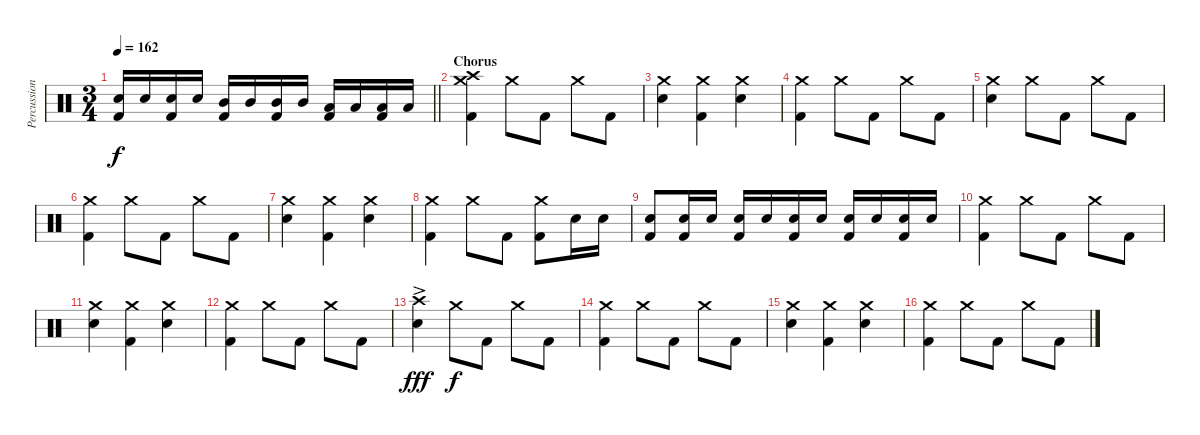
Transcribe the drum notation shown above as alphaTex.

\track ("Percussion" "Percussion") {instrument percussion}
\staff {score}
\articulation defaults
\ts (3 4)
\tempo 162
\clef neutral
\barLineRight lightlight
\ks c
("Electric Snare (hit)" "Kick (hit) 2").16{dy f} "Electric Snare (hit)".16 ("Electric Snare (hit)" "Kick (hit) 2").16 "Electric Snare (hit)".16 ("Mid Tom (hit)" "Kick (hit) 2").16 "Mid Tom (hit)".16 ("Mid Tom (hit)" "Kick (hit) 2").16 "Mid Tom (hit)".16 ("Low Tom (hit)" "Kick (hit) 2").16 "Low Tom (hit)".16 ("Low Tom (hit)" "Kick (hit) 2").16 "Low Tom (hit)".16 |
\section ("" "Chorus")
("Crash high (hit)" "Crash medium (hit)" "Kick (hit) 2").4 "Crash medium (hit)".8 "Kick (hit) 2".8 "Crash medium (hit)".8 "Kick (hit) 2".8 |
("Crash medium (hit)" "Electric Snare (hit)").4 ("Crash medium (hit)" "Kick (hit) 2").4 ("Crash medium (hit)" "Electric Snare (hit)").4 |
("Crash medium (hit)" "Kick (hit) 2").4 "Crash medium (hit)".8 "Kick (hit) 2".8 "Crash medium (hit)".8 "Kick (hit) 2".8 |
("Crash medium (hit)" "Electric Snare (hit)").4 "Crash medium (hit)".8 "Kick (hit) 2".8 "Crash medium (hit)".8 "Kick (hit) 2".8 |
("Crash medium (hit)" "Kick (hit) 2").4 "Crash medium (hit)".8 "Kick (hit) 2".8 "Crash medium (hit)".8 "Kick (hit) 2".8 |
("Crash medium (hit)" "Electric Snare (hit)").4 ("Crash medium (hit)" "Kick (hit) 2").4 ("Crash medium (hit)" "Electric Snare (hit)").4 |
("Crash medium (hit)" "Kick (hit) 2").4 "Crash medium (hit)".8 "Kick (hit) 2".8 ("Crash medium (hit)" "Kick (hit) 2").8 "Electric Snare (hit)".16 "Electric Snare (hit)".16 |
("Electric Snare (hit)" "Kick (hit) 2").8 ("Electric Snare (hit)" "Kick (hit) 2").16 "Electric Snare (hit)".16 ("Electric Snare (hit)" "Kick (hit) 2").16 "Electric Snare (hit)".16 ("Electric Snare (hit)" "Kick (hit) 2").16 "Electric Snare (hit)".16 ("Electric Snare (hit)" "Kick (hit) 2").16 "Electric Snare (hit)".16 ("Electric Snare (hit)" "Kick (hit) 2").16 "Electric Snare (hit)".16 |
("Crash medium (hit)" "Kick (hit) 2").4 "Crash medium (hit)".8 "Kick (hit) 2".8 "Crash medium (hit)".8 "Kick (hit) 2".8 |
("Crash medium (hit)" "Electric Snare (hit)").4 ("Crash medium (hit)" "Kick (hit) 2").4 ("Crash medium (hit)" "Electric Snare (hit)").4 |
("Crash medium (hit)" "Kick (hit) 2").4 "Crash medium (hit)".8 "Kick (hit) 2".8 "Crash medium (hit)".8 "Kick (hit) 2".8 |
("Crash high (hit)"{ac} "Electric Snare (hit)").4{dy fff} "Crash medium (hit)".8{dy f} "Kick (hit) 2".8 "Crash medium (hit)".8 "Kick (hit) 2".8 |
("Crash medium (hit)" "Kick (hit) 2").4 "Crash medium (hit)".8 "Kick (hit) 2".8 "Crash medium (hit)".8 "Kick (hit) 2".8 |
("Crash medium (hit)" "Electric Snare (hit)").4 ("Crash medium (hit)" "Kick (hit) 2").4 ("Crash medium (hit)" "Electric Snare (hit)").4 |
("Crash medium (hit)" "Kick (hit) 2").4 "Crash medium (hit)".8 "Kick (hit) 2".8 "Crash medium (hit)".8 "Kick (hit) 2".8
